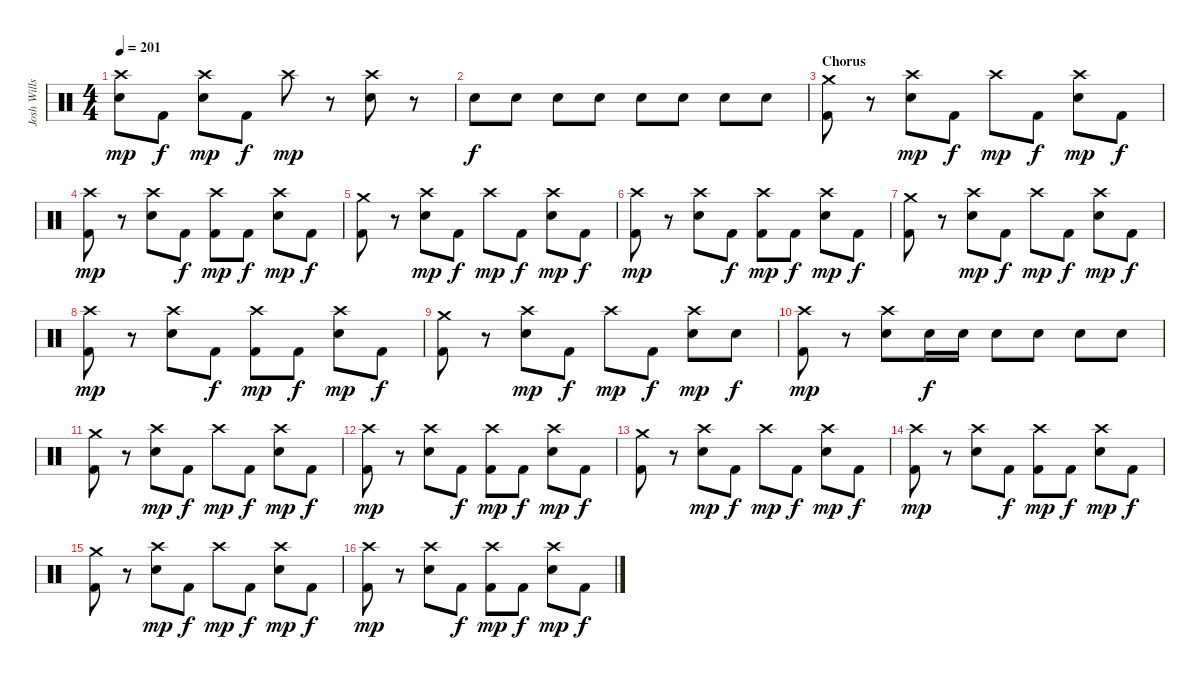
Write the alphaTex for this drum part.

\track ("Josh Wills" "Josh Wills") {instrument percussion}
\staff {score}
\articulation defaults
\ts (4 4)
\tempo 201
\clef neutral
\ks c
("Crash high (hit)" "Snare (hit) 2").8{dy mp} "Kick (hit) 2".8{dy f} ("Crash high (hit)" "Snare (hit) 2").8{dy mp} "Kick (hit) 2".8{dy f} "Crash high (hit)".8{dy mp} r.8 ("Crash high (hit)" "Snare (hit) 2").8 r.8 |
"Snare (hit) 2".8{dy f} "Snare (hit) 2".8 "Snare (hit) 2".8 "Snare (hit) 2".8 "Snare (hit) 2".8 "Snare (hit) 2".8 "Snare (hit) 2".8 "Snare (hit) 2".8 |
\section ("" "Chorus")
("Crash medium (hit)" "Kick (hit) 2").8 r.8 ("Crash high (hit)" "Snare (hit) 2").8{dy mp} "Kick (hit) 2".8{dy f} "Crash high (hit)".8{dy mp} "Kick (hit) 2".8{dy f} ("Crash high (hit)" "Snare (hit) 2").8{dy mp} "Kick (hit) 2".8{dy f} |
("Crash high (hit)" "Kick (hit) 2").8{dy mp} r.8 ("Crash high (hit)" "Snare (hit) 2").8 "Kick (hit) 2".8{dy f} ("Crash high (hit)" "Kick (hit) 2").8{dy mp} "Kick (hit) 2".8{dy f} ("Crash high (hit)" "Snare (hit) 2").8{dy mp} "Kick (hit) 2".8{dy f} |
("Crash medium (hit)" "Kick (hit) 2").8 r.8 ("Crash high (hit)" "Snare (hit) 2").8{dy mp} "Kick (hit) 2".8{dy f} "Crash high (hit)".8{dy mp} "Kick (hit) 2".8{dy f} ("Crash high (hit)" "Snare (hit) 2").8{dy mp} "Kick (hit) 2".8{dy f} |
("Crash high (hit)" "Kick (hit) 2").8{dy mp} r.8 ("Crash high (hit)" "Snare (hit) 2").8 "Kick (hit) 2".8{dy f} ("Crash high (hit)" "Kick (hit) 2").8{dy mp} "Kick (hit) 2".8{dy f} ("Crash high (hit)" "Snare (hit) 2").8{dy mp} "Kick (hit) 2".8{dy f} |
("Crash medium (hit)" "Kick (hit) 2").8 r.8 ("Crash high (hit)" "Snare (hit) 2").8{dy mp} "Kick (hit) 2".8{dy f} "Crash high (hit)".8{dy mp} "Kick (hit) 2".8{dy f} ("Crash high (hit)" "Snare (hit) 2").8{dy mp} "Kick (hit) 2".8{dy f} |
("Crash high (hit)" "Kick (hit) 2").8{dy mp} r.8 ("Crash high (hit)" "Snare (hit) 2").8 "Kick (hit) 2".8{dy f} ("Crash high (hit)" "Kick (hit) 2").8{dy mp} "Kick (hit) 2".8{dy f} ("Crash high (hit)" "Snare (hit) 2").8{dy mp} "Kick (hit) 2".8{dy f} |
("Crash medium (hit)" "Kick (hit) 2").8 r.8 ("Crash high (hit)" "Snare (hit) 2").8{dy mp} "Kick (hit) 2".8{dy f} "Crash high (hit)".8{dy mp} "Kick (hit) 2".8{dy f} ("Crash high (hit)" "Snare (hit) 2").8{dy mp} "Snare (hit) 2".8{dy f} |
("Crash high (hit)" "Kick (hit) 2").8{dy mp} r.8 ("Crash high (hit)" "Snare (hit) 2").8 "Snare (hit) 2".16{dy f} "Snare (hit) 2".16 "Snare (hit) 2".8 "Snare (hit) 2".8 "Snare (hit) 2".8 "Snare (hit) 2".8 |
("Crash medium (hit)" "Kick (hit) 2").8 r.8 ("Crash high (hit)" "Snare (hit) 2").8{dy mp} "Kick (hit) 2".8{dy f} "Crash high (hit)".8{dy mp} "Kick (hit) 2".8{dy f} ("Crash high (hit)" "Snare (hit) 2").8{dy mp} "Kick (hit) 2".8{dy f} |
("Crash high (hit)" "Kick (hit) 2").8{dy mp} r.8 ("Crash high (hit)" "Snare (hit) 2").8 "Kick (hit) 2".8{dy f} ("Crash high (hit)" "Kick (hit) 2").8{dy mp} "Kick (hit) 2".8{dy f} ("Crash high (hit)" "Snare (hit) 2").8{dy mp} "Kick (hit) 2".8{dy f} |
("Crash medium (hit)" "Kick (hit) 2").8 r.8 ("Crash high (hit)" "Snare (hit) 2").8{dy mp} "Kick (hit) 2".8{dy f} "Crash high (hit)".8{dy mp} "Kick (hit) 2".8{dy f} ("Crash high (hit)" "Snare (hit) 2").8{dy mp} "Kick (hit) 2".8{dy f} |
("Crash high (hit)" "Kick (hit) 2").8{dy mp} r.8 ("Crash high (hit)" "Snare (hit) 2").8 "Kick (hit) 2".8{dy f} ("Crash high (hit)" "Kick (hit) 2").8{dy mp} "Kick (hit) 2".8{dy f} ("Crash high (hit)" "Snare (hit) 2").8{dy mp} "Kick (hit) 2".8{dy f} |
("Crash medium (hit)" "Kick (hit) 2").8 r.8 ("Crash high (hit)" "Snare (hit) 2").8{dy mp} "Kick (hit) 2".8{dy f} "Crash high (hit)".8{dy mp} "Kick (hit) 2".8{dy f} ("Crash high (hit)" "Snare (hit) 2").8{dy mp} "Kick (hit) 2".8{dy f} |
("Crash high (hit)" "Kick (hit) 2").8{dy mp} r.8 ("Crash high (hit)" "Snare (hit) 2").8 "Kick (hit) 2".8{dy f} ("Crash high (hit)" "Kick (hit) 2").8{dy mp} "Kick (hit) 2".8{dy f} ("Crash high (hit)" "Snare (hit) 2").8{dy mp} "Kick (hit) 2".8{dy f}
